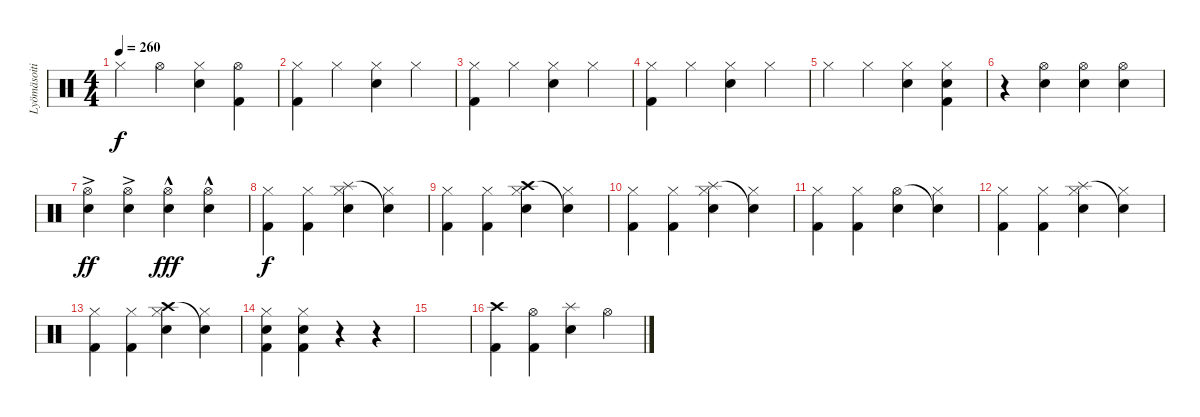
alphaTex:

\track ("Lyömäsoitin" "Lyömäsoiti") {instrument percussion}
\staff {score}
\articulation defaults
\ts (4 4)
\tempo 260
\clef neutral
\ks c "Hi-Hat (closed)".4{dy f} "Hi-Hat (open)".4
("Hi-Hat (closed)" "Electric Snare (hit)").4 ("Hi-Hat (open)" "Kick (hit) 2").4 |
("Hi-Hat (closed)" "Kick (hit) 2").4 "Hi-Hat (closed)".4 ("Hi-Hat (closed)" "Electric Snare (hit)").4 "Hi-Hat (closed)".4 |
("Hi-Hat (closed)" "Kick (hit) 2").4 "Hi-Hat (closed)".4 ("Hi-Hat (closed)" "Electric Snare (hit)").4 "Hi-Hat (closed)".4 |
("Hi-Hat (closed)" "Kick (hit) 2").4 "Hi-Hat (closed)".4 ("Hi-Hat (closed)" "Electric Snare (hit)").4 "Hi-Hat (closed)".4 |
"Hi-Hat (closed)".4 "Hi-Hat (closed)".4 ("Hi-Hat (closed)" "Electric Snare (hit)").4 ("Hi-Hat (closed)" "Electric Snare (hit)" "Kick (hit) 2").4 |
r.4 ("Hi-Hat (open)" "Electric Snare (hit)").4 ("Hi-Hat (open)" "Electric Snare (hit)").4 ("Hi-Hat (open)" "Electric Snare (hit)").4 |
("Hi-Hat (open)"{ac} "Electric Snare (hit)").4{dy ff} ("Hi-Hat (open)"{ac} "Electric Snare (hit)").4 ("Hi-Hat (open)"{hac} "Electric Snare (hit)").4{dy fff} ("Hi-Hat (open)"{hac} "Electric Snare (hit)").4 |
("Hi-Hat (closed)" "Kick (hit) 2").4{dy f} ("Hi-Hat (closed)" "Kick (hit) 2").4 ("Splash (hit)" "Hi-Hat (closed)" "Electric Snare (hit)").4 ("Snare (hit)"{t} "Hi-Hat (closed)").4 |
("Hi-Hat (closed)" "Kick (hit) 2").4 ("Hi-Hat (closed)" "Kick (hit) 2").4 ("Crash high (hit)" "Hi-Hat (closed)" "Electric Snare (hit)").4 ("Snare (hit)"{t} "Hi-Hat (closed)").4 |
("Hi-Hat (closed)" "Kick (hit) 2").4 ("Hi-Hat (closed)" "Kick (hit) 2").4 ("Splash (hit)" "Hi-Hat (closed)" "Electric Snare (hit)").4 ("Snare (hit)"{t} "Hi-Hat (closed)").4 |
("Hi-Hat (closed)" "Kick (hit) 2").4 ("Hi-Hat (closed)" "Kick (hit) 2").4 ("Hi-Hat (open)" "Electric Snare (hit)").4 ("Snare (hit)"{t} "Hi-Hat (closed)").4 |
("Hi-Hat (closed)" "Kick (hit) 2").4 ("Hi-Hat (closed)" "Kick (hit) 2").4 ("Splash (hit)" "Hi-Hat (closed)" "Electric Snare (hit)").4 ("Snare (hit)"{t} "Hi-Hat (closed)").4 |
("Hi-Hat (closed)" "Kick (hit) 2").4 ("Hi-Hat (closed)" "Kick (hit) 2").4 ("Crash high (hit)" "Hi-Hat (closed)" "Electric Snare (hit)").4 ("Snare (hit)"{t} "Hi-Hat (closed)").4 |
("Hi-Hat (closed)" "Electric Snare (hit)" "Kick (hit) 2").4 ("Hi-Hat (closed)" "Electric Snare (hit)" "Kick (hit) 2").4 r.4 r.4 |
|
("Crash high (hit)" "Kick (hit) 2").4 ("Hi-Hat (open)" "Kick (hit) 2").4 ("Splash (hit)" "Electric Snare (hit)").4 "Hi-Hat (open)".4
